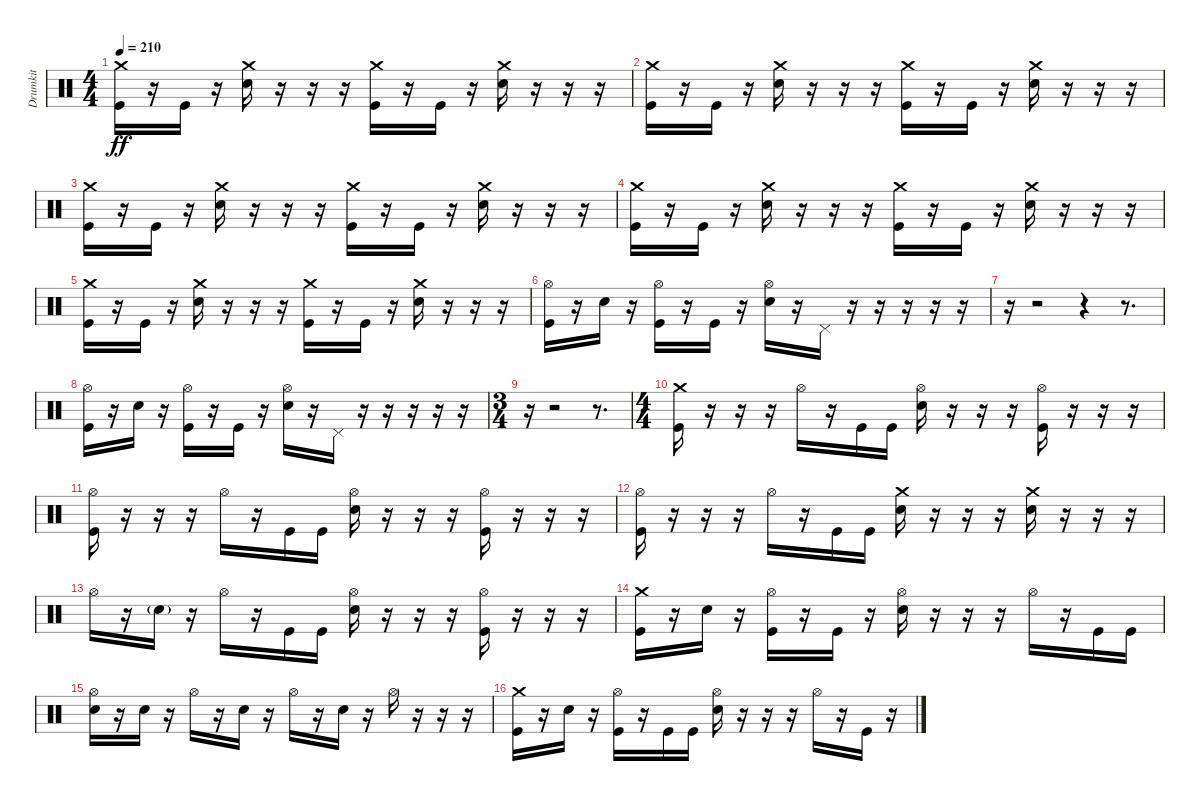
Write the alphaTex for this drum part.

\track ("Drumkit" "Drumkit") {instrument percussion}
\staff {score}
\articulation defaults
\ts (4 4)
\tempo 210
\clef neutral
\ks c
("Kick (hit)" "Crash medium (hit)").16{dy ff} r.16 "Kick (hit)".16 r.16 ("Snare (hit) 2" "Crash medium (hit)").16 r.16 r.16 r.16 ("Kick (hit)" "Crash medium (hit)").16 r.16 "Kick (hit)".16 r.16 ("Snare (hit) 2" "Crash medium (hit)").16 r.16 r.16 r.16 |
("Kick (hit)" "Crash medium (hit)").16 r.16 "Kick (hit)".16 r.16 ("Snare (hit) 2" "Crash medium (hit)").16 r.16 r.16 r.16 ("Kick (hit)" "Crash medium (hit)").16 r.16 "Kick (hit)".16 r.16 ("Snare (hit) 2" "Crash medium (hit)").16 r.16 r.16 r.16 |
("Kick (hit)" "Crash medium (hit)").16 r.16 "Kick (hit)".16 r.16 ("Snare (hit) 2" "Crash medium (hit)").16 r.16 r.16 r.16 ("Kick (hit)" "Crash medium (hit)").16 r.16 "Kick (hit)".16 r.16 ("Snare (hit) 2" "Crash medium (hit)").16 r.16 r.16 r.16 |
("Kick (hit)" "Crash medium (hit)").16 r.16 "Kick (hit)".16 r.16 ("Snare (hit) 2" "Crash medium (hit)").16 r.16 r.16 r.16 ("Kick (hit)" "Crash medium (hit)").16 r.16 "Kick (hit)".16 r.16 ("Snare (hit) 2" "Crash medium (hit)").16 r.16 r.16 r.16 |
("Kick (hit)" "Crash medium (hit)").16 r.16 "Kick (hit)".16 r.16 ("Snare (hit) 2" "Crash medium (hit)").16 r.16 r.16 r.16 ("Kick (hit)" "Crash medium (hit)").16 r.16 "Kick (hit)".16 r.16 ("Snare (hit) 2" "Crash medium (hit)").16 r.16 r.16 r.16 |
("Hi-Hat (open)" "Kick (hit)").16 r.16 "Snare (hit) 2".16 r.16 ("Hi-Hat (open)" "Kick (hit)").16 r.16 "Kick (hit)".16 r.16 ("Hi-Hat (open)" "Snare (hit) 2").16 r.16 "Pedal Hi-Hat (hit)".16 r.16 r.16 r.16 r.16 r.16 |
r.16 r.2 r.4 r.8{d} |
("Hi-Hat (open)" "Kick (hit)").16 r.16 "Snare (hit) 2".16 r.16 ("Hi-Hat (open)" "Kick (hit)").16 r.16 "Kick (hit)".16 r.16 ("Hi-Hat (open)" "Snare (hit) 2").16 r.16 "Pedal Hi-Hat (hit)".16 r.16 r.16 r.16 r.16 r.16 |
\ts (3 4)
r.16 r.2 r.8{d} |
\ts (4 4)
("Crash medium (hit)" "Kick (hit)").16 r.16 r.16 r.16 "Hi-Hat (open)".16 r.16 "Kick (hit)".16 "Kick (hit)".16 ("Hi-Hat (open)" "Snare (hit) 2").16 r.16 r.16 r.16 ("Hi-Hat (open)" "Kick (hit)").16 r.16 r.16 r.16 |
("Hi-Hat (open)" "Kick (hit)").16 r.16 r.16 r.16 "Hi-Hat (open)".16 r.16 "Kick (hit)".16 "Kick (hit)".16 ("Hi-Hat (open)" "Snare (hit) 2").16 r.16 r.16 r.16 ("Hi-Hat (open)" "Kick (hit)").16 r.16 r.16 r.16 |
("Hi-Hat (open)" "Kick (hit)").16 r.16 r.16 r.16 "Hi-Hat (open)".16 r.16 "Kick (hit)".16 "Kick (hit)".16 ("Crash medium (hit)" "Snare (hit) 2").16 r.16 r.16 r.16 ("Crash medium (hit)" "Snare (hit) 2").16 r.16 r.16 r.16 |
"Hi-Hat (open)".16 r.16 "Snare (hit) 2"{g}.16 r.16 "Hi-Hat (open)".16 r.16 "Kick (hit)".16 "Kick (hit)".16 ("Hi-Hat (open)" "Snare (hit) 2").16 r.16 r.16 r.16 ("Hi-Hat (open)" "Kick (hit)").16 r.16 r.16 r.16 |
("Crash medium (hit)" "Kick (hit)").16 r.16 "Snare (hit) 2".16 r.16 ("Hi-Hat (open)" "Kick (hit)").16 r.16 "Kick (hit)".16 r.16 ("Hi-Hat (open)" "Snare (hit) 2").16 r.16 r.16 r.16 "Hi-Hat (open)".16 r.16 "Kick (hit)".16 "Kick (hit)".16 |
("Hi-Hat (open)" "Snare (hit) 2").16 r.16 "Snare (hit) 2".16 r.16 "Hi-Hat (open)".16 r.16 "Snare (hit) 2".16 r.16 "Hi-Hat (open)".16 r.16 "Snare (hit) 2".16 r.16 "Hi-Hat (open)".16 r.16 r.16 r.16 |
("Crash medium (hit)" "Kick (hit)").16 r.16 "Snare (hit) 2".16 r.16 ("Hi-Hat (open)" "Kick (hit)").16 r.16 "Kick (hit)".16 "Kick (hit)".16 ("Hi-Hat (open)" "Snare (hit) 2").16 r.16 r.16 r.16 "Hi-Hat (open)".16 r.16 "Kick (hit)".16 r.16
